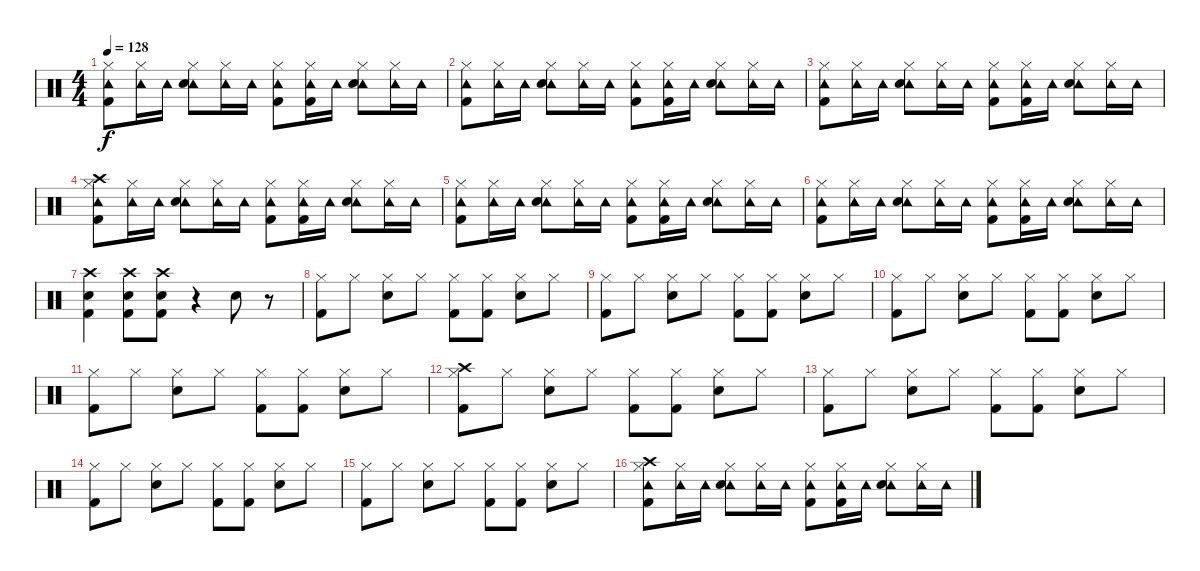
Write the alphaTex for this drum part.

\track "" {instrument percussion}
\staff {score}
\articulation defaults
\ts (4 4)
\tempo 128
\clef neutral
\ks c
("Hi-Hat (closed)" "Tambourine (hit)" "Kick (hit) 2").8{dy f} ("Hi-Hat (closed)" "Tambourine (hit)").16 "Tambourine (hit)".16 ("Hi-Hat (closed)" "Tambourine (hit)" "Snare (hit) 2").8 ("Hi-Hat (closed)" "Tambourine (hit)").16 "Tambourine (hit)".16 ("Hi-Hat (closed)" "Tambourine (hit)" "Kick (hit) 2").8 ("Hi-Hat (closed)" "Tambourine (hit)" "Kick (hit) 2").16 "Tambourine (hit)".16 ("Hi-Hat (closed)" "Tambourine (hit)" "Snare (hit) 2").8 ("Hi-Hat (closed)" "Tambourine (hit)").16 "Tambourine (hit)".16 |
("Hi-Hat (closed)" "Tambourine (hit)" "Kick (hit) 2").8 ("Hi-Hat (closed)" "Tambourine (hit)").16 "Tambourine (hit)".16 ("Hi-Hat (closed)" "Tambourine (hit)" "Snare (hit) 2").8 ("Hi-Hat (closed)" "Tambourine (hit)").16 "Tambourine (hit)".16 ("Hi-Hat (closed)" "Tambourine (hit)" "Kick (hit) 2").8 ("Hi-Hat (closed)" "Tambourine (hit)" "Kick (hit) 2").16 "Tambourine (hit)".16 ("Hi-Hat (closed)" "Tambourine (hit)" "Snare (hit) 2").8 ("Hi-Hat (closed)" "Tambourine (hit)").16 "Tambourine (hit)".16 |
("Hi-Hat (closed)" "Tambourine (hit)" "Kick (hit) 2").8 ("Hi-Hat (closed)" "Tambourine (hit)").16 "Tambourine (hit)".16 ("Hi-Hat (closed)" "Tambourine (hit)" "Snare (hit) 2").8 ("Hi-Hat (closed)" "Tambourine (hit)").16 "Tambourine (hit)".16 ("Hi-Hat (closed)" "Tambourine (hit)" "Kick (hit) 2").8 ("Hi-Hat (closed)" "Tambourine (hit)" "Kick (hit) 2").16 "Tambourine (hit)".16 ("Hi-Hat (closed)" "Tambourine (hit)" "Snare (hit) 2").8 ("Hi-Hat (closed)" "Tambourine (hit)").16 "Tambourine (hit)".16 |
("Hi-Hat (closed)" "Tambourine (hit)" "Crash high (hit)" "Kick (hit) 2").8 ("Hi-Hat (closed)" "Tambourine (hit)").16 "Tambourine (hit)".16 ("Hi-Hat (closed)" "Tambourine (hit)" "Snare (hit) 2").8 ("Hi-Hat (closed)" "Tambourine (hit)").16 "Tambourine (hit)".16 ("Hi-Hat (closed)" "Tambourine (hit)" "Kick (hit) 2").8 ("Hi-Hat (closed)" "Tambourine (hit)" "Kick (hit) 2").16 "Tambourine (hit)".16 ("Hi-Hat (closed)" "Tambourine (hit)" "Snare (hit) 2").8 ("Hi-Hat (closed)" "Tambourine (hit)").16 "Tambourine (hit)".16 |
("Hi-Hat (closed)" "Tambourine (hit)" "Kick (hit) 2").8 ("Hi-Hat (closed)" "Tambourine (hit)").16 "Tambourine (hit)".16 ("Hi-Hat (closed)" "Tambourine (hit)" "Snare (hit) 2").8 ("Hi-Hat (closed)" "Tambourine (hit)").16 "Tambourine (hit)".16 ("Hi-Hat (closed)" "Tambourine (hit)" "Kick (hit) 2").8 ("Hi-Hat (closed)" "Tambourine (hit)" "Kick (hit) 2").16 "Tambourine (hit)".16 ("Hi-Hat (closed)" "Tambourine (hit)" "Snare (hit) 2").8 ("Hi-Hat (closed)" "Tambourine (hit)").16 "Tambourine (hit)".16 |
("Hi-Hat (closed)" "Tambourine (hit)" "Kick (hit) 2").8 ("Hi-Hat (closed)" "Tambourine (hit)").16 "Tambourine (hit)".16 ("Hi-Hat (closed)" "Tambourine (hit)" "Snare (hit) 2").8 ("Hi-Hat (closed)" "Tambourine (hit)").16 "Tambourine (hit)".16 ("Hi-Hat (closed)" "Tambourine (hit)" "Kick (hit) 2").8 ("Hi-Hat (closed)" "Tambourine (hit)" "Kick (hit) 2").16 "Tambourine (hit)".16 ("Hi-Hat (closed)" "Tambourine (hit)" "Snare (hit) 2").8 ("Hi-Hat (closed)" "Tambourine (hit)").16 "Tambourine (hit)".16 |
("Crash high (hit)" "Snare (hit) 2" "Kick (hit) 2").4 ("Crash high (hit)" "Snare (hit) 2" "Kick (hit) 2").8 ("Crash high (hit)" "Snare (hit) 2" "Kick (hit) 2").8 r.4 "Snare (hit) 2".8 r.8 |
("Hi-Hat (closed)" "Kick (hit) 2").8 "Hi-Hat (closed)".8 ("Hi-Hat (closed)" "Snare (hit) 2").8 "Hi-Hat (closed)".8 ("Hi-Hat (closed)" "Kick (hit) 2").8 ("Hi-Hat (closed)" "Kick (hit) 2").8 ("Hi-Hat (closed)" "Snare (hit) 2").8 "Hi-Hat (closed)".8 |
("Hi-Hat (closed)" "Kick (hit) 2").8 "Hi-Hat (closed)".8 ("Hi-Hat (closed)" "Snare (hit) 2").8 "Hi-Hat (closed)".8 ("Hi-Hat (closed)" "Kick (hit) 2").8 ("Hi-Hat (closed)" "Kick (hit) 2").8 ("Hi-Hat (closed)" "Snare (hit) 2").8 "Hi-Hat (closed)".8 |
("Hi-Hat (closed)" "Kick (hit) 2").8 "Hi-Hat (closed)".8 ("Hi-Hat (closed)" "Snare (hit) 2").8 "Hi-Hat (closed)".8 ("Hi-Hat (closed)" "Kick (hit) 2").8 ("Hi-Hat (closed)" "Kick (hit) 2").8 ("Hi-Hat (closed)" "Snare (hit) 2").8 "Hi-Hat (closed)".8 |
("Hi-Hat (closed)" "Kick (hit) 2").8 "Hi-Hat (closed)".8 ("Hi-Hat (closed)" "Snare (hit) 2").8 "Hi-Hat (closed)".8 ("Hi-Hat (closed)" "Kick (hit) 2").8 ("Hi-Hat (closed)" "Kick (hit) 2").8 ("Hi-Hat (closed)" "Snare (hit) 2").8 "Hi-Hat (closed)".8 |
("Hi-Hat (closed)" "Crash high (hit)" "Kick (hit) 2").8 "Hi-Hat (closed)".8 ("Hi-Hat (closed)" "Snare (hit) 2").8 "Hi-Hat (closed)".8 ("Hi-Hat (closed)" "Kick (hit) 2").8 ("Hi-Hat (closed)" "Kick (hit) 2").8 ("Hi-Hat (closed)" "Snare (hit) 2").8 "Hi-Hat (closed)".8 |
("Hi-Hat (closed)" "Kick (hit) 2").8 "Hi-Hat (closed)".8 ("Hi-Hat (closed)" "Snare (hit) 2").8 "Hi-Hat (closed)".8 ("Hi-Hat (closed)" "Kick (hit) 2").8 ("Hi-Hat (closed)" "Kick (hit) 2").8 ("Hi-Hat (closed)" "Snare (hit) 2").8 "Hi-Hat (closed)".8 |
("Hi-Hat (closed)" "Kick (hit) 2").8 "Hi-Hat (closed)".8 ("Hi-Hat (closed)" "Snare (hit) 2").8 "Hi-Hat (closed)".8 ("Hi-Hat (closed)" "Kick (hit) 2").8 ("Hi-Hat (closed)" "Kick (hit) 2").8 ("Hi-Hat (closed)" "Snare (hit) 2").8 "Hi-Hat (closed)".8 |
("Hi-Hat (closed)" "Kick (hit) 2").8 "Hi-Hat (closed)".8 ("Hi-Hat (closed)" "Snare (hit) 2").8 "Hi-Hat (closed)".8 ("Hi-Hat (closed)" "Kick (hit) 2").8 ("Hi-Hat (closed)" "Kick (hit) 2").8 ("Hi-Hat (closed)" "Snare (hit) 2").8 "Hi-Hat (closed)".8 |
("Hi-Hat (closed)" "Tambourine (hit)" "Crash high (hit)" "Kick (hit) 2").8 ("Hi-Hat (closed)" "Tambourine (hit)").16 "Tambourine (hit)".16 ("Hi-Hat (closed)" "Tambourine (hit)" "Snare (hit) 2").8 ("Hi-Hat (closed)" "Tambourine (hit)").16 "Tambourine (hit)".16 ("Hi-Hat (closed)" "Tambourine (hit)" "Kick (hit) 2").8 ("Hi-Hat (closed)" "Tambourine (hit)" "Kick (hit) 2").16 "Tambourine (hit)".16 ("Hi-Hat (closed)" "Tambourine (hit)" "Snare (hit) 2").8 ("Hi-Hat (closed)" "Tambourine (hit)").16 "Tambourine (hit)".16
